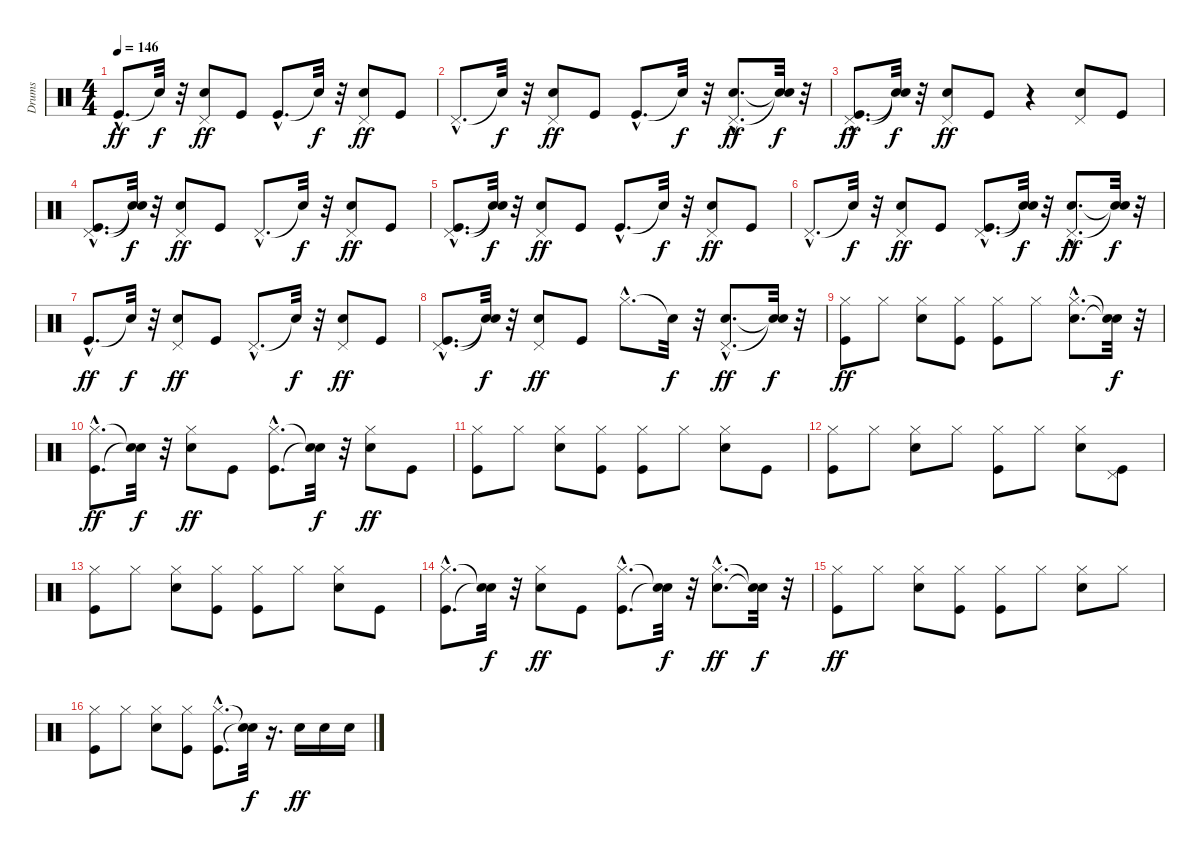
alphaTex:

\track ("Drums" "Drums") {instrument percussion}
\staff {score}
\articulation defaults
\ts (4 4)
\tempo 146
\clef neutral
\ks c "Kick (hit)"{hac}.8{d dy ff} "Snare (hit)"{t}.32{dy f}
r.32 ("Snare (hit) 2" "Pedal Hi-Hat (hit)").8{dy ff} "Kick (hit)".8 "Kick (hit)"{hac}.8{d} "Snare (hit)"{t}.32{dy f} r.32 ("Snare (hit) 2" "Pedal Hi-Hat (hit)").8{dy ff} "Kick (hit)".8 |
"Pedal Hi-Hat (hit)"{hac}.8{d} "Snare (hit)"{t}.32{dy f} r.32 ("Snare (hit) 2" "Pedal Hi-Hat (hit)").8{dy ff} "Kick (hit)".8 "Kick (hit)"{hac}.8{d} "Snare (hit)"{t}.32{dy f} r.32 ("Snare (hit) 2"{hac} "Pedal Hi-Hat (hit)"{hac}).8{d dy ff} ("Snare (hit)"{t} "Snare (hit)"{t}).32{dy f} r.32 |
("Kick (hit)"{hac} "Pedal Hi-Hat (hit)"{hac}).8{d dy ff} ("Snare (hit)"{t} "Snare (hit)"{t}).32{dy f} r.32 ("Snare (hit) 2" "Pedal Hi-Hat (hit)").8{dy ff} "Kick (hit)".8 r.4 ("Snare (hit) 2" "Pedal Hi-Hat (hit)").8 "Kick (hit)".8 |
("Kick (hit)"{hac} "Pedal Hi-Hat (hit)"{hac}).8{d} ("Snare (hit)"{t} "Snare (hit)"{t}).32{dy f} r.32 ("Snare (hit) 2" "Pedal Hi-Hat (hit)").8{dy ff} "Kick (hit)".8 "Pedal Hi-Hat (hit)"{hac}.8{d} "Snare (hit)"{t}.32{dy f} r.32 ("Snare (hit) 2" "Pedal Hi-Hat (hit)").8{dy ff} "Kick (hit)".8 |
("Kick (hit)"{hac} "Pedal Hi-Hat (hit)"{hac}).8{d} ("Snare (hit)"{t} "Snare (hit)"{t}).32{dy f} r.32 ("Snare (hit) 2" "Pedal Hi-Hat (hit)").8{dy ff} "Kick (hit)".8 "Kick (hit)"{hac}.8{d} "Snare (hit)"{t}.32{dy f} r.32 ("Snare (hit) 2" "Pedal Hi-Hat (hit)").8{dy ff} "Kick (hit)".8 |
"Pedal Hi-Hat (hit)"{hac}.8{d} "Snare (hit)"{t}.32{dy f} r.32 ("Snare (hit) 2" "Pedal Hi-Hat (hit)").8{dy ff} "Kick (hit)".8 ("Kick (hit)"{hac} "Pedal Hi-Hat (hit)"{hac}).8{d} ("Snare (hit)"{t} "Snare (hit)"{t}).32{dy f} r.32 ("Snare (hit) 2"{hac} "Pedal Hi-Hat (hit)"{hac}).8{d dy ff} ("Snare (hit)"{t} "Snare (hit)"{t}).32{dy f} r.32 |
"Kick (hit)"{hac}.8{d dy ff} "Snare (hit)"{t}.32{dy f} r.32 ("Snare (hit) 2" "Pedal Hi-Hat (hit)").8{dy ff} "Kick (hit)".8 "Pedal Hi-Hat (hit)"{hac}.8{d} "Snare (hit)"{t}.32{dy f} r.32 ("Snare (hit) 2" "Pedal Hi-Hat (hit)").8{dy ff} "Kick (hit)".8 |
("Kick (hit)"{hac} "Pedal Hi-Hat (hit)"{hac}).8{d} ("Snare (hit)"{t} "Snare (hit)"{t}).32{dy f} r.32 ("Snare (hit) 2" "Pedal Hi-Hat (hit)").8{dy ff} "Kick (hit)".8 "Hi-Hat (closed)"{hac}.8{d} "Snare (hit)"{t}.32{dy f} r.32 ("Snare (hit) 2"{hac} "Pedal Hi-Hat (hit)"{hac}).8{d dy ff} ("Snare (hit)"{t} "Snare (hit)"{t}).32{dy f} r.32 |
("Kick (hit)" "Hi-Hat (closed)").8{dy ff} "Hi-Hat (closed)".8 ("Snare (hit) 2" "Hi-Hat (closed)").8 ("Kick (hit)" "Hi-Hat (closed)").8 ("Kick (hit)" "Hi-Hat (closed)").8 "Hi-Hat (closed)".8 ("Snare (hit) 2"{hac} "Hi-Hat (closed)"{hac}).8{d} ("Snare (hit)"{t} "Snare (hit)"{t}).32{dy f} r.32 |
("Kick (hit)"{hac} "Hi-Hat (closed)"{hac}).8{d dy ff} ("Snare (hit)"{t} "Snare (hit)"{t}).32{dy f} r.32 ("Snare (hit) 2" "Hi-Hat (closed)").8{dy ff} "Kick (hit)".8 ("Kick (hit)"{hac} "Hi-Hat (closed)"{hac}).8{d} ("Snare (hit)"{t} "Snare (hit)"{t}).32{dy f} r.32 ("Snare (hit) 2" "Hi-Hat (closed)").8{dy ff} "Kick (hit)".8 |
("Kick (hit)" "Hi-Hat (closed)").8 "Hi-Hat (closed)".8 ("Snare (hit) 2" "Hi-Hat (closed)").8 ("Kick (hit)" "Hi-Hat (closed)").8 ("Kick (hit)" "Hi-Hat (closed)").8 "Hi-Hat (closed)".8 ("Snare (hit) 2" "Hi-Hat (closed)").8 "Kick (hit)".8 |
("Kick (hit)" "Hi-Hat (closed)").8 "Hi-Hat (closed)".8 ("Snare (hit) 2" "Hi-Hat (closed)").8 "Hi-Hat (closed)".8 ("Kick (hit)" "Hi-Hat (closed)").8 "Hi-Hat (closed)".8 ("Snare (hit) 2" "Hi-Hat (closed)").8 ("Kick (hit)" "Pedal Hi-Hat (hit)").8 |
("Kick (hit)" "Hi-Hat (closed)").8 "Hi-Hat (closed)".8 ("Snare (hit) 2" "Hi-Hat (closed)").8 ("Kick (hit)" "Hi-Hat (closed)").8 ("Kick (hit)" "Hi-Hat (closed)").8 "Hi-Hat (closed)".8 ("Snare (hit) 2" "Hi-Hat (closed)").8 "Kick (hit)".8 |
("Kick (hit)"{hac} "Hi-Hat (closed)"{hac}).8{d} ("Snare (hit)"{t} "Snare (hit)"{t}).32{dy f} r.32 ("Snare (hit) 2" "Hi-Hat (closed)").8{dy ff} "Kick (hit)".8 ("Kick (hit)"{hac} "Hi-Hat (closed)"{hac}).8{d} ("Snare (hit)"{t} "Snare (hit)"{t}).32{dy f} r.32 ("Snare (hit) 2"{hac} "Hi-Hat (closed)"{hac}).8{d dy ff} ("Snare (hit)"{t} "Snare (hit)"{t}).32{dy f} r.32 |
("Kick (hit)" "Hi-Hat (closed)").8{dy ff} "Hi-Hat (closed)".8 ("Snare (hit) 2" "Hi-Hat (closed)").8 ("Kick (hit)" "Hi-Hat (closed)").8 ("Kick (hit)" "Hi-Hat (closed)").8 "Hi-Hat (closed)".8 ("Snare (hit) 2" "Hi-Hat (closed)").8 "Hi-Hat (closed)".8 |
("Kick (hit)" "Hi-Hat (closed)").8 "Hi-Hat (closed)".8 ("Snare (hit) 2" "Hi-Hat (closed)").8 ("Kick (hit)" "Hi-Hat (closed)").8 ("Kick (hit)"{hac} "Hi-Hat (closed)"{hac}).8{d} ("Snare (hit)"{t} "Snare (hit)"{t}).32{dy f} r.16{d} "Snare (hit) 2".16{dy ff} "Snare (hit) 2".16 "Snare (hit) 2".16
